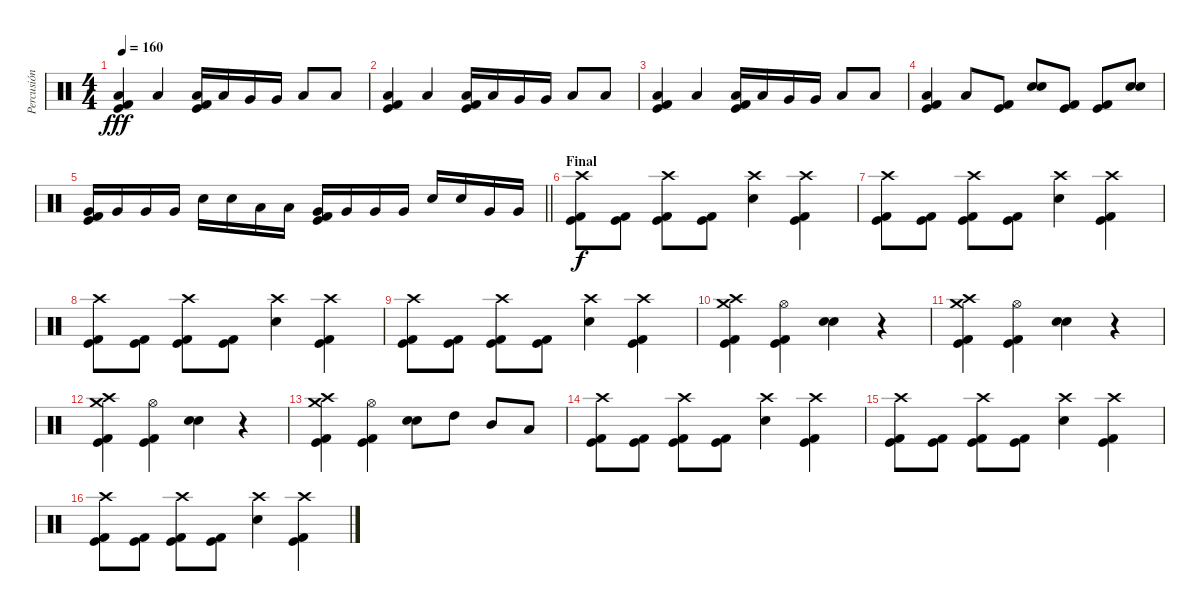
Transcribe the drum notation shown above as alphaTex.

\track ("Percusión" "Percusión") {instrument percussion}
\staff {score}
\articulation defaults
\ts (4 4)
\tempo 160
\clef neutral
\ks c
("Low Tom (hit)" "Kick (hit)" "Kick (hit) 2").4{dy fff} "Low Tom (hit)".4 ("Low Floor Tom (hit)" "Kick (hit)" "Kick (hit) 2").16 "Low Floor Tom (hit)".16 "Very Low Tom (hit)".16 "Very Low Tom (hit)".16 "Low Tom (hit)".8 "Low Tom (hit)".8 |
("Low Tom (hit)" "Kick (hit)" "Kick (hit) 2").4 "Low Tom (hit)".4 ("Low Floor Tom (hit)" "Kick (hit)" "Kick (hit) 2").16 "Low Floor Tom (hit)".16 "Very Low Tom (hit)".16 "Very Low Tom (hit)".16 "Low Tom (hit)".8 "Low Tom (hit)".8 |
("Low Tom (hit)" "Kick (hit)" "Kick (hit) 2").4 "Low Tom (hit)".4 ("Low Floor Tom (hit)" "Kick (hit)" "Kick (hit) 2").16 "Low Floor Tom (hit)".16 "Very Low Tom (hit)".16 "Very Low Tom (hit)".16 "Low Tom (hit)".8 "Low Tom (hit)".8 |
("Low Tom (hit)" "Kick (hit)" "Kick (hit) 2").4 "Low Tom (hit)".8 ("Kick (hit)" "Kick (hit) 2").8 ("Electric Snare (hit)" "Electric Snare (hit)").8 ("Kick (hit)" "Kick (hit) 2").8 ("Kick (hit)" "Kick (hit) 2").8 ("Electric Snare (hit)" "Electric Snare (hit)").8 |
\barLineRight lightlight
("Very Low Tom (hit)" "Kick (hit)" "Kick (hit) 2").16 "Very Low Tom (hit)".16 "Very Low Tom (hit)".16 "Very Low Tom (hit)".16 "Electric Snare (hit)".16 "Electric Snare (hit)".16 "Low Tom (hit)".16 "Low Tom (hit)".16 ("Very Low Tom (hit)" "Kick (hit)" "Kick (hit) 2").16 "Very Low Tom (hit)".16 "Very Low Tom (hit)".16 "Very Low Tom (hit)".16 "Electric Snare (hit)".16 "Electric Snare (hit)".16 "Very Low Tom (hit)".16 "Very Low Tom (hit)".16 |
\section ("" "Final")
("Crash high (hit)" "Kick (hit)" "Kick (hit) 2").8{dy f} ("Kick (hit)" "Kick (hit) 2").8 ("Crash high (hit)" "Kick (hit)" "Kick (hit) 2").8 ("Kick (hit)" "Kick (hit) 2").8 ("Crash high (hit)" "Electric Snare (hit)").4 ("Crash high (hit)" "Kick (hit)" "Kick (hit) 2").4 |
("Crash high (hit)" "Kick (hit)" "Kick (hit) 2").8 ("Kick (hit)" "Kick (hit) 2").8 ("Crash high (hit)" "Kick (hit)" "Kick (hit) 2").8 ("Kick (hit)" "Kick (hit) 2").8 ("Crash high (hit)" "Electric Snare (hit)").4 ("Crash high (hit)" "Kick (hit)" "Kick (hit) 2").4 |
("Crash high (hit)" "Kick (hit)" "Kick (hit) 2").8 ("Kick (hit)" "Kick (hit) 2").8 ("Crash high (hit)" "Kick (hit)" "Kick (hit) 2").8 ("Kick (hit)" "Kick (hit) 2").8 ("Crash high (hit)" "Electric Snare (hit)").4 ("Crash high (hit)" "Kick (hit)" "Kick (hit) 2").4 |
("Crash high (hit)" "Kick (hit)" "Kick (hit) 2").8 ("Kick (hit)" "Kick (hit) 2").8 ("Crash high (hit)" "Kick (hit)" "Kick (hit) 2").8 ("Kick (hit)" "Kick (hit) 2").8 ("Crash high (hit)" "Electric Snare (hit)").4 ("Crash high (hit)" "Kick (hit)" "Kick (hit) 2").4 |
("Crash medium (hit)" "Crash high (hit)" "Kick (hit)" "Kick (hit) 2").4 ("Hi-Hat (open)" "Kick (hit)" "Kick (hit) 2").4 ("Electric Snare (hit)" "Electric Snare (hit)").4 r.4 |
("Crash medium (hit)" "Crash high (hit)" "Kick (hit)" "Kick (hit) 2").4 ("Hi-Hat (open)" "Kick (hit)" "Kick (hit) 2").4 ("Electric Snare (hit)" "Electric Snare (hit)").4 r.4 |
("Crash medium (hit)" "Crash high (hit)" "Kick (hit)" "Kick (hit) 2").4 ("Hi-Hat (open)" "Kick (hit)" "Kick (hit) 2").4 ("Electric Snare (hit)" "Electric Snare (hit)").4 r.4 |
("Crash medium (hit)" "Crash high (hit)" "Kick (hit)" "Kick (hit) 2").4 ("Hi-Hat (open)" "Kick (hit)" "Kick (hit) 2").4 ("Electric Snare (hit)" "Electric Snare (hit)").8 "High Tom (hit)".8 "Mid Tom (hit)".8 "Low Tom (hit)".8 |
("Crash high (hit)" "Kick (hit)" "Kick (hit) 2").8 ("Kick (hit)" "Kick (hit) 2").8 ("Crash high (hit)" "Kick (hit)" "Kick (hit) 2").8 ("Kick (hit)" "Kick (hit) 2").8 ("Crash high (hit)" "Electric Snare (hit)").4 ("Crash high (hit)" "Kick (hit)" "Kick (hit) 2").4 |
("Crash high (hit)" "Kick (hit)" "Kick (hit) 2").8 ("Kick (hit)" "Kick (hit) 2").8 ("Crash high (hit)" "Kick (hit)" "Kick (hit) 2").8 ("Kick (hit)" "Kick (hit) 2").8 ("Crash high (hit)" "Electric Snare (hit)").4 ("Crash high (hit)" "Kick (hit)" "Kick (hit) 2").4 |
("Crash high (hit)" "Kick (hit)" "Kick (hit) 2").8 ("Kick (hit)" "Kick (hit) 2").8 ("Crash high (hit)" "Kick (hit)" "Kick (hit) 2").8 ("Kick (hit)" "Kick (hit) 2").8 ("Crash high (hit)" "Electric Snare (hit)").4 ("Crash high (hit)" "Kick (hit)" "Kick (hit) 2").4
